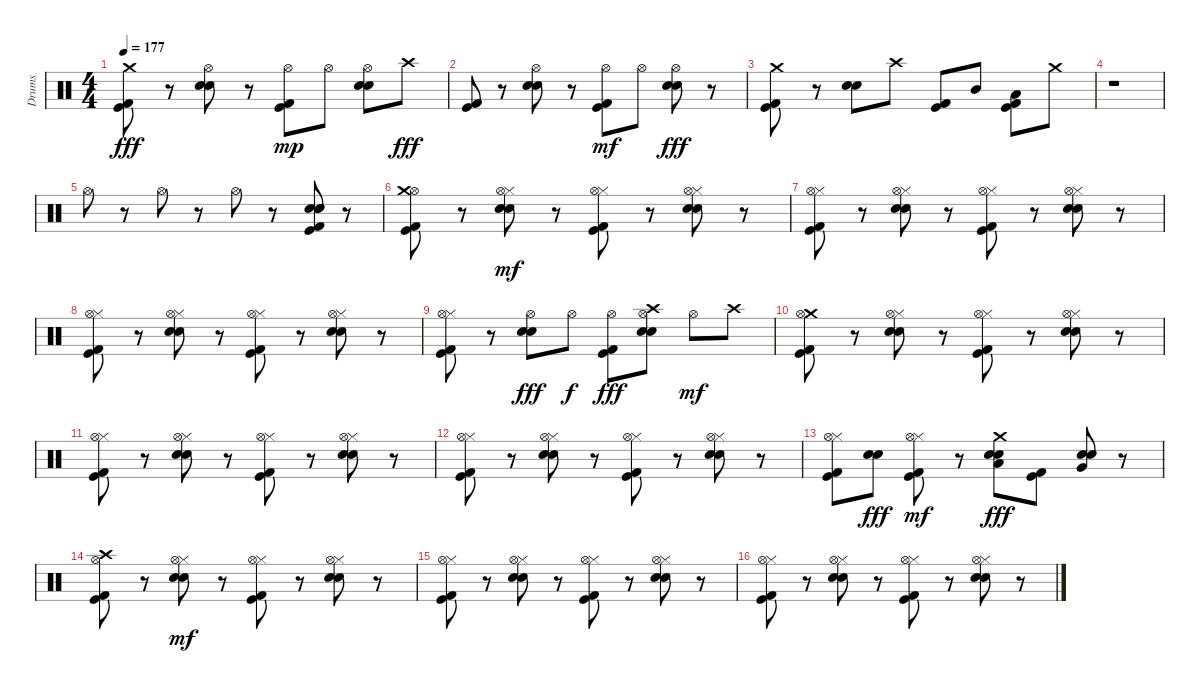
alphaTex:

\track ("Drums" "Drums") {instrument percussion}
\staff {score}
\articulation defaults
\ts (4 4)
\tempo 177
\clef neutral
\ks c
("Kick (hit) 2" "Kick (hit)" "Crash medium (hit)").8{dy fff} r.8 ("Hi-Hat (open)" "Electric Snare (hit)" "Snare (hit) 2").8 r.8 ("Kick (hit) 2" "Kick (hit)" "Hi-Hat (open)").8{dy mp} "Hi-Hat (open)".8 ("Electric Snare (hit)" "Snare (hit) 2" "Hi-Hat (open)").8 "Crash high (hit)".8{dy fff} |
("Kick (hit) 2" "Kick (hit)").8 r.8 ("Electric Snare (hit)" "Snare (hit) 2" "Hi-Hat (open)").8 r.8 ("Kick (hit) 2" "Kick (hit)" "Hi-Hat (open)").8{dy mf} "Hi-Hat (open)".8 ("Electric Snare (hit)" "Snare (hit) 2" "Hi-Hat (open)").8{dy fff} r.8 |
("Kick (hit) 2" "Kick (hit)" "Crash medium (hit)").8 r.8 ("Electric Snare (hit)" "Snare (hit) 2").8 "Crash high (hit)".8 ("Kick (hit) 2" "Kick (hit)").8 "Mid Tom (hit)".8 ("Low Tom (hit)" "Kick (hit) 2" "Kick (hit)").8 "Crash medium (hit)".8 |
r.1 |
"Hi-Hat (open)".8 r.8 "Hi-Hat (open)".8 r.8 "Hi-Hat (open)".8 r.8 ("Snare (hit) 2" "Electric Snare (hit)" "Snare (hit) 2" "Kick (hit) 2" "Kick (hit)").8 r.8 |
("Hi-Hat (open)" "Kick (hit) 2" "Kick (hit)" "Crash medium (hit)").8 r.8 ("Electric Snare (hit)" "Snare (hit) 2" "Hi-Hat (closed)" "Hi-Hat (open)").8{dy mf} r.8 ("Kick (hit) 2" "Kick (hit)" "Hi-Hat (closed)" "Hi-Hat (open)").8 r.8 ("Electric Snare (hit)" "Snare (hit) 2" "Hi-Hat (closed)" "Hi-Hat (open)").8 r.8 |
("Hi-Hat (closed)" "Kick (hit) 2" "Kick (hit)" "Hi-Hat (open)").8 r.8 ("Hi-Hat (closed)" "Electric Snare (hit)" "Snare (hit) 2" "Hi-Hat (open)").8 r.8 ("Hi-Hat (closed)" "Kick (hit) 2" "Kick (hit)" "Hi-Hat (open)").8 r.8 ("Hi-Hat (closed)" "Electric Snare (hit)" "Snare (hit) 2" "Hi-Hat (open)").8 r.8 |
("Hi-Hat (closed)" "Kick (hit) 2" "Kick (hit)" "Hi-Hat (open)").8 r.8 ("Hi-Hat (closed)" "Electric Snare (hit)" "Snare (hit) 2" "Hi-Hat (open)").8 r.8 ("Hi-Hat (closed)" "Kick (hit) 2" "Kick (hit)" "Hi-Hat (open)").8 r.8 ("Hi-Hat (closed)" "Electric Snare (hit)" "Snare (hit) 2" "Hi-Hat (open)").8 r.8 |
("Kick (hit) 2" "Kick (hit)" "Hi-Hat (closed)" "Hi-Hat (open)").8 r.8 ("Hi-Hat (open)" "Electric Snare (hit)" "Snare (hit) 2").8{dy fff} "Hi-Hat (open)".8{dy f} ("Hi-Hat (open)" "Kick (hit) 2" "Kick (hit)").8{dy fff} ("Hi-Hat (open)" "Electric Snare (hit)" "Snare (hit) 2" "Crash high (hit)").8 "Hi-Hat (open)".8{dy mf} "Crash high (hit)".8 |
("Kick (hit) 2" "Kick (hit)" "Crash medium (hit)" "Hi-Hat (open)").8 r.8 ("Hi-Hat (closed)" "Electric Snare (hit)" "Snare (hit) 2" "Hi-Hat (open)").8 r.8 ("Hi-Hat (closed)" "Kick (hit) 2" "Kick (hit)" "Hi-Hat (open)").8 r.8 ("Hi-Hat (closed)" "Electric Snare (hit)" "Snare (hit) 2" "Hi-Hat (open)").8 r.8 |
("Hi-Hat (closed)" "Kick (hit) 2" "Kick (hit)" "Hi-Hat (open)").8 r.8 ("Hi-Hat (closed)" "Electric Snare (hit)" "Snare (hit) 2" "Hi-Hat (open)").8 r.8 ("Hi-Hat (closed)" "Kick (hit) 2" "Kick (hit)" "Hi-Hat (open)").8 r.8 ("Hi-Hat (closed)" "Electric Snare (hit)" "Snare (hit) 2" "Hi-Hat (open)").8 r.8 |
("Hi-Hat (closed)" "Kick (hit) 2" "Kick (hit)" "Hi-Hat (open)").8 r.8 ("Hi-Hat (closed)" "Electric Snare (hit)" "Snare (hit) 2" "Hi-Hat (open)").8 r.8 ("Hi-Hat (closed)" "Kick (hit) 2" "Kick (hit)" "Hi-Hat (open)").8 r.8 ("Hi-Hat (closed)" "Electric Snare (hit)" "Snare (hit) 2" "Hi-Hat (open)").8 r.8 |
("Kick (hit) 2" "Kick (hit)" "Hi-Hat (closed)" "Hi-Hat (open)").8 ("Electric Snare (hit)" "Snare (hit) 2").8{dy fff} ("Kick (hit) 2" "Kick (hit)" "Hi-Hat (closed)" "Hi-Hat (open)").8{dy mf} r.8 ("Electric Snare (hit)" "Snare (hit) 2" "Crash medium (hit)" "Low Tom (hit)").8{dy fff} ("Kick (hit) 2" "Kick (hit)").8 ("Electric Snare (hit)" "Snare (hit) 2" "Very Low Tom (hit)").8 r.8 |
("Crash high (hit)" "Kick (hit) 2" "Kick (hit)" "Hi-Hat (open)").8 r.8 ("Hi-Hat (closed)" "Electric Snare (hit)" "Snare (hit) 2" "Hi-Hat (open)").8{dy mf} r.8 ("Hi-Hat (closed)" "Kick (hit) 2" "Kick (hit)" "Hi-Hat (open)").8 r.8 ("Hi-Hat (closed)" "Electric Snare (hit)" "Snare (hit) 2" "Hi-Hat (open)").8 r.8 |
("Hi-Hat (closed)" "Kick (hit) 2" "Kick (hit)" "Hi-Hat (open)").8 r.8 ("Hi-Hat (closed)" "Electric Snare (hit)" "Snare (hit) 2" "Hi-Hat (open)").8 r.8 ("Hi-Hat (closed)" "Kick (hit) 2" "Kick (hit)" "Hi-Hat (open)").8 r.8 ("Hi-Hat (closed)" "Electric Snare (hit)" "Snare (hit) 2" "Hi-Hat (open)").8 r.8 |
("Hi-Hat (closed)" "Kick (hit) 2" "Kick (hit)" "Hi-Hat (open)").8 r.8 ("Hi-Hat (closed)" "Electric Snare (hit)" "Snare (hit) 2" "Hi-Hat (open)").8 r.8 ("Hi-Hat (closed)" "Kick (hit) 2" "Kick (hit)" "Hi-Hat (open)").8 r.8 ("Hi-Hat (closed)" "Electric Snare (hit)" "Snare (hit) 2" "Hi-Hat (open)").8 r.8
